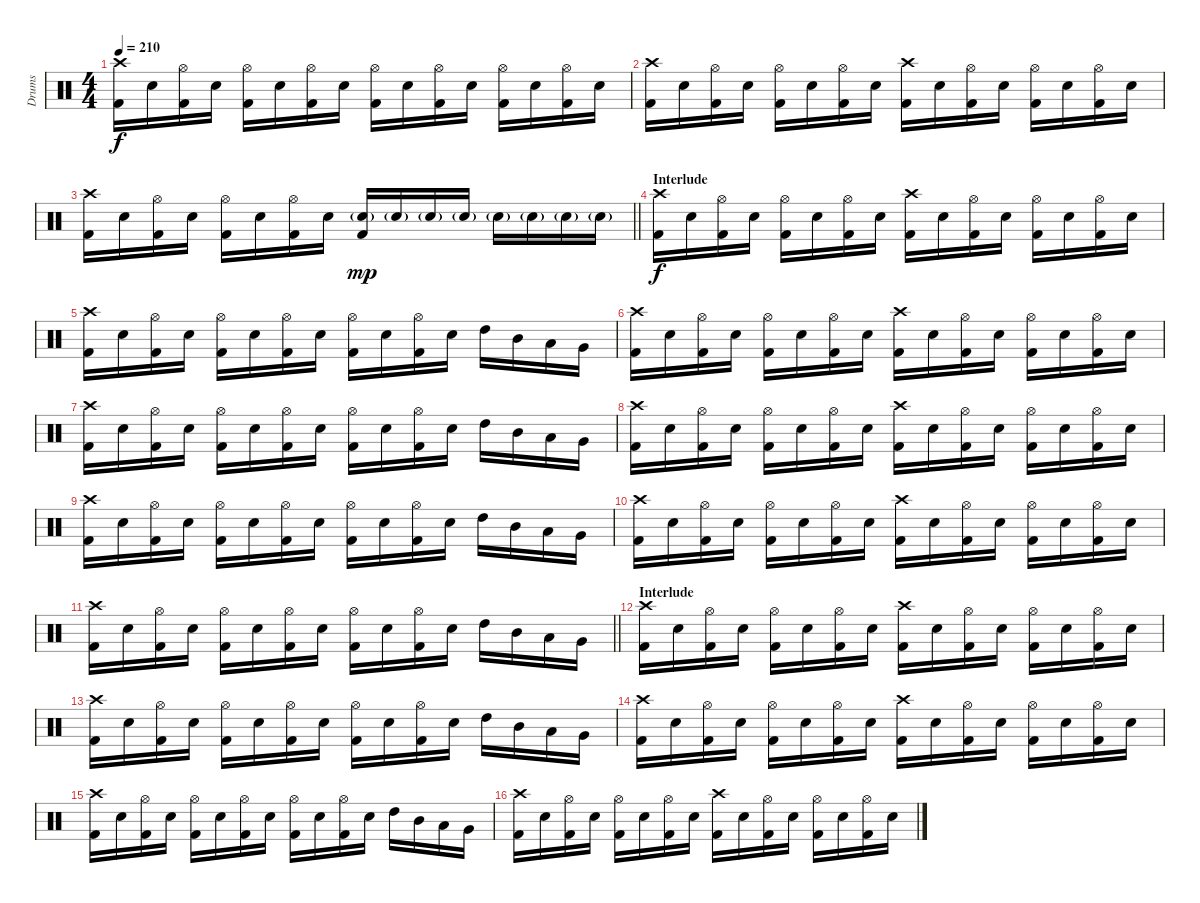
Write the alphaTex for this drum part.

\track ("Drums" "Drums") {instrument percussion}
\staff {score}
\articulation defaults
\ts (4 4)
\tempo 210
\clef neutral
\ks c
("Crash high (hit)" "Kick (hit) 2").16{dy f} "Electric Snare (hit)".16 ("Hi-Hat (open)" "Kick (hit) 2").16 "Electric Snare (hit)".16 ("Hi-Hat (open)" "Kick (hit) 2").16 "Electric Snare (hit)".16 ("Hi-Hat (open)" "Kick (hit) 2").16 "Electric Snare (hit)".16 ("Hi-Hat (open)" "Kick (hit) 2").16 "Electric Snare (hit)".16 ("Hi-Hat (open)" "Kick (hit) 2").16 "Electric Snare (hit)".16 ("Hi-Hat (open)" "Kick (hit) 2").16 "Electric Snare (hit)".16 ("Hi-Hat (open)" "Kick (hit) 2").16 "Electric Snare (hit)".16 |
("Crash high (hit)" "Kick (hit) 2").16 "Electric Snare (hit)".16 ("Hi-Hat (open)" "Kick (hit) 2").16 "Electric Snare (hit)".16 ("Hi-Hat (open)" "Kick (hit) 2").16 "Electric Snare (hit)".16 ("Hi-Hat (open)" "Kick (hit) 2").16 "Electric Snare (hit)".16 ("Crash high (hit)" "Kick (hit) 2").16 "Electric Snare (hit)".16 ("Hi-Hat (open)" "Kick (hit) 2").16 "Electric Snare (hit)".16 ("Hi-Hat (open)" "Kick (hit) 2").16 "Electric Snare (hit)".16 ("Hi-Hat (open)" "Kick (hit) 2").16 "Electric Snare (hit)".16 |
\barLineRight lightlight
("Crash high (hit)" "Kick (hit) 2").16 "Electric Snare (hit)".16 ("Hi-Hat (open)" "Kick (hit) 2").16 "Electric Snare (hit)".16 ("Hi-Hat (open)" "Kick (hit) 2").16 "Electric Snare (hit)".16 ("Hi-Hat (open)" "Kick (hit) 2").16 "Electric Snare (hit)".16 ("Electric Snare (hit)"{g} "Kick (hit) 2").16{dy mp} "Electric Snare (hit)"{g}.16 "Electric Snare (hit)"{g}.16 "Electric Snare (hit)"{g}.16 "Electric Snare (hit)"{g}.16 "Electric Snare (hit)"{g}.16 "Electric Snare (hit)"{g}.16 "Electric Snare (hit)"{g}.16 |
\section ("" "Interlude")
("Crash high (hit)" "Kick (hit) 2").16{dy f} "Electric Snare (hit)".16 ("Hi-Hat (open)" "Kick (hit) 2").16 "Electric Snare (hit)".16 ("Hi-Hat (open)" "Kick (hit) 2").16 "Electric Snare (hit)".16 ("Hi-Hat (open)" "Kick (hit) 2").16 "Electric Snare (hit)".16 ("Crash high (hit)" "Kick (hit) 2").16 "Electric Snare (hit)".16 ("Hi-Hat (open)" "Kick (hit) 2").16 "Electric Snare (hit)".16 ("Hi-Hat (open)" "Kick (hit) 2").16 "Electric Snare (hit)".16 ("Hi-Hat (open)" "Kick (hit) 2").16 "Electric Snare (hit)".16 |
("Crash high (hit)" "Kick (hit) 2").16 "Electric Snare (hit)".16 ("Hi-Hat (open)" "Kick (hit) 2").16 "Electric Snare (hit)".16 ("Hi-Hat (open)" "Kick (hit) 2").16 "Electric Snare (hit)".16 ("Hi-Hat (open)" "Kick (hit) 2").16 "Electric Snare (hit)".16 ("Hi-Hat (open)" "Kick (hit) 2").16 "Electric Snare (hit)".16 ("Hi-Hat (open)" "Kick (hit) 2").16 "Electric Snare (hit)".16 "High Tom (hit)".16 "Mid Tom (hit)".16 "Low Tom (hit)".16 "Very Low Tom (hit)".16 |
("Crash high (hit)" "Kick (hit) 2").16 "Electric Snare (hit)".16 ("Hi-Hat (open)" "Kick (hit) 2").16 "Electric Snare (hit)".16 ("Hi-Hat (open)" "Kick (hit) 2").16 "Electric Snare (hit)".16 ("Hi-Hat (open)" "Kick (hit) 2").16 "Electric Snare (hit)".16 ("Crash high (hit)" "Kick (hit) 2").16 "Electric Snare (hit)".16 ("Hi-Hat (open)" "Kick (hit) 2").16 "Electric Snare (hit)".16 ("Hi-Hat (open)" "Kick (hit) 2").16 "Electric Snare (hit)".16 ("Hi-Hat (open)" "Kick (hit) 2").16 "Electric Snare (hit)".16 |
("Crash high (hit)" "Kick (hit) 2").16 "Electric Snare (hit)".16 ("Hi-Hat (open)" "Kick (hit) 2").16 "Electric Snare (hit)".16 ("Hi-Hat (open)" "Kick (hit) 2").16 "Electric Snare (hit)".16 ("Hi-Hat (open)" "Kick (hit) 2").16 "Electric Snare (hit)".16 ("Hi-Hat (open)" "Kick (hit) 2").16 "Electric Snare (hit)".16 ("Hi-Hat (open)" "Kick (hit) 2").16 "Electric Snare (hit)".16 "High Tom (hit)".16 "Mid Tom (hit)".16 "Low Tom (hit)".16 "Very Low Tom (hit)".16 |
("Crash high (hit)" "Kick (hit) 2").16 "Electric Snare (hit)".16 ("Hi-Hat (open)" "Kick (hit) 2").16 "Electric Snare (hit)".16 ("Hi-Hat (open)" "Kick (hit) 2").16 "Electric Snare (hit)".16 ("Hi-Hat (open)" "Kick (hit) 2").16 "Electric Snare (hit)".16 ("Crash high (hit)" "Kick (hit) 2").16 "Electric Snare (hit)".16 ("Hi-Hat (open)" "Kick (hit) 2").16 "Electric Snare (hit)".16 ("Hi-Hat (open)" "Kick (hit) 2").16 "Electric Snare (hit)".16 ("Hi-Hat (open)" "Kick (hit) 2").16 "Electric Snare (hit)".16 |
("Crash high (hit)" "Kick (hit) 2").16 "Electric Snare (hit)".16 ("Hi-Hat (open)" "Kick (hit) 2").16 "Electric Snare (hit)".16 ("Hi-Hat (open)" "Kick (hit) 2").16 "Electric Snare (hit)".16 ("Hi-Hat (open)" "Kick (hit) 2").16 "Electric Snare (hit)".16 ("Hi-Hat (open)" "Kick (hit) 2").16 "Electric Snare (hit)".16 ("Hi-Hat (open)" "Kick (hit) 2").16 "Electric Snare (hit)".16 "High Tom (hit)".16 "Mid Tom (hit)".16 "Low Tom (hit)".16 "Very Low Tom (hit)".16 |
("Crash high (hit)" "Kick (hit) 2").16 "Electric Snare (hit)".16 ("Hi-Hat (open)" "Kick (hit) 2").16 "Electric Snare (hit)".16 ("Hi-Hat (open)" "Kick (hit) 2").16 "Electric Snare (hit)".16 ("Hi-Hat (open)" "Kick (hit) 2").16 "Electric Snare (hit)".16 ("Crash high (hit)" "Kick (hit) 2").16 "Electric Snare (hit)".16 ("Hi-Hat (open)" "Kick (hit) 2").16 "Electric Snare (hit)".16 ("Hi-Hat (open)" "Kick (hit) 2").16 "Electric Snare (hit)".16 ("Hi-Hat (open)" "Kick (hit) 2").16 "Electric Snare (hit)".16 |
\barLineRight lightlight
("Crash high (hit)" "Kick (hit) 2").16 "Electric Snare (hit)".16 ("Hi-Hat (open)" "Kick (hit) 2").16 "Electric Snare (hit)".16 ("Hi-Hat (open)" "Kick (hit) 2").16 "Electric Snare (hit)".16 ("Hi-Hat (open)" "Kick (hit) 2").16 "Electric Snare (hit)".16 ("Hi-Hat (open)" "Kick (hit) 2").16 "Electric Snare (hit)".16 ("Hi-Hat (open)" "Kick (hit) 2").16 "Electric Snare (hit)".16 "High Tom (hit)".16 "Mid Tom (hit)".16 "Low Tom (hit)".16 "Very Low Tom (hit)".16 |
\section ("" "Interlude")
("Crash high (hit)" "Kick (hit) 2").16 "Electric Snare (hit)".16 ("Hi-Hat (open)" "Kick (hit) 2").16 "Electric Snare (hit)".16 ("Hi-Hat (open)" "Kick (hit) 2").16 "Electric Snare (hit)".16 ("Hi-Hat (open)" "Kick (hit) 2").16 "Electric Snare (hit)".16 ("Crash high (hit)" "Kick (hit) 2").16 "Electric Snare (hit)".16 ("Hi-Hat (open)" "Kick (hit) 2").16 "Electric Snare (hit)".16 ("Hi-Hat (open)" "Kick (hit) 2").16 "Electric Snare (hit)".16 ("Hi-Hat (open)" "Kick (hit) 2").16 "Electric Snare (hit)".16 |
("Crash high (hit)" "Kick (hit) 2").16 "Electric Snare (hit)".16 ("Hi-Hat (open)" "Kick (hit) 2").16 "Electric Snare (hit)".16 ("Hi-Hat (open)" "Kick (hit) 2").16 "Electric Snare (hit)".16 ("Hi-Hat (open)" "Kick (hit) 2").16 "Electric Snare (hit)".16 ("Hi-Hat (open)" "Kick (hit) 2").16 "Electric Snare (hit)".16 ("Hi-Hat (open)" "Kick (hit) 2").16 "Electric Snare (hit)".16 "High Tom (hit)".16 "Mid Tom (hit)".16 "Low Tom (hit)".16 "Very Low Tom (hit)".16 |
("Crash high (hit)" "Kick (hit) 2").16 "Electric Snare (hit)".16 ("Hi-Hat (open)" "Kick (hit) 2").16 "Electric Snare (hit)".16 ("Hi-Hat (open)" "Kick (hit) 2").16 "Electric Snare (hit)".16 ("Hi-Hat (open)" "Kick (hit) 2").16 "Electric Snare (hit)".16 ("Crash high (hit)" "Kick (hit) 2").16 "Electric Snare (hit)".16 ("Hi-Hat (open)" "Kick (hit) 2").16 "Electric Snare (hit)".16 ("Hi-Hat (open)" "Kick (hit) 2").16 "Electric Snare (hit)".16 ("Hi-Hat (open)" "Kick (hit) 2").16 "Electric Snare (hit)".16 |
("Crash high (hit)" "Kick (hit) 2").16 "Electric Snare (hit)".16 ("Hi-Hat (open)" "Kick (hit) 2").16 "Electric Snare (hit)".16 ("Hi-Hat (open)" "Kick (hit) 2").16 "Electric Snare (hit)".16 ("Hi-Hat (open)" "Kick (hit) 2").16 "Electric Snare (hit)".16 ("Hi-Hat (open)" "Kick (hit) 2").16 "Electric Snare (hit)".16 ("Hi-Hat (open)" "Kick (hit) 2").16 "Electric Snare (hit)".16 "High Tom (hit)".16 "Mid Tom (hit)".16 "Low Tom (hit)".16 "Very Low Tom (hit)".16 |
("Crash high (hit)" "Kick (hit) 2").16 "Electric Snare (hit)".16 ("Hi-Hat (open)" "Kick (hit) 2").16 "Electric Snare (hit)".16 ("Hi-Hat (open)" "Kick (hit) 2").16 "Electric Snare (hit)".16 ("Hi-Hat (open)" "Kick (hit) 2").16 "Electric Snare (hit)".16 ("Crash high (hit)" "Kick (hit) 2").16 "Electric Snare (hit)".16 ("Hi-Hat (open)" "Kick (hit) 2").16 "Electric Snare (hit)".16 ("Hi-Hat (open)" "Kick (hit) 2").16 "Electric Snare (hit)".16 ("Hi-Hat (open)" "Kick (hit) 2").16 "Electric Snare (hit)".16
